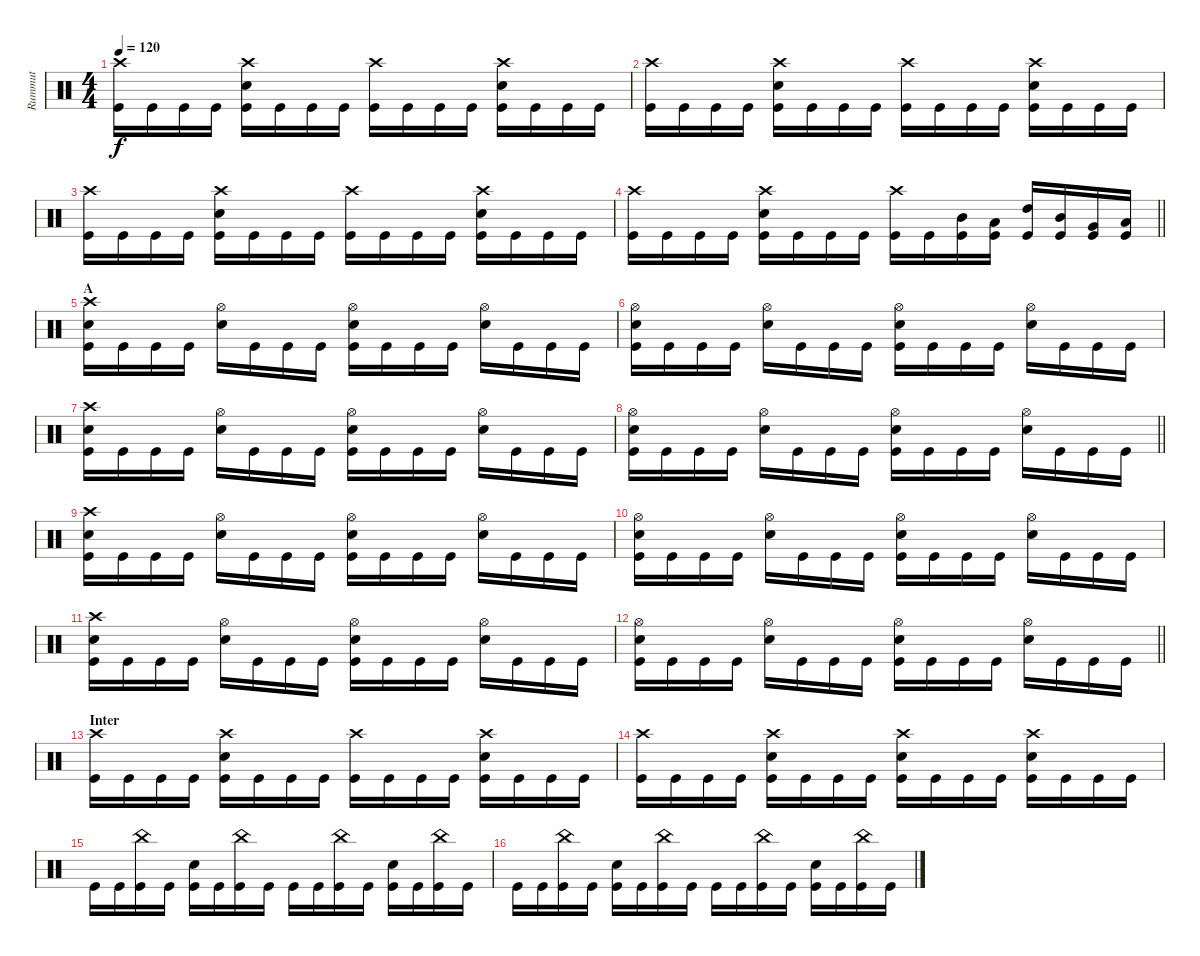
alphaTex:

\track ("Rummut" "Rummut") {instrument percussion}
\staff {score}
\articulation defaults
\ts (4 4)
\tempo 120
\clef neutral
\ks c
("Crash high (hit)" "Kick (hit)").16{dy f} "Kick (hit)".16 "Kick (hit)".16 "Kick (hit)".16 ("Crash high (hit)" "Snare (hit) 2" "Kick (hit)").16 "Kick (hit)".16 "Kick (hit)".16 "Kick (hit)".16 ("Crash high (hit)" "Kick (hit)").16 "Kick (hit)".16 "Kick (hit)".16 "Kick (hit)".16 ("Crash high (hit)" "Snare (hit) 2" "Kick (hit)").16 "Kick (hit)".16 "Kick (hit)".16 "Kick (hit)".16 |
("Crash high (hit)" "Kick (hit)").16 "Kick (hit)".16 "Kick (hit)".16 "Kick (hit)".16 ("Crash high (hit)" "Snare (hit) 2" "Kick (hit)").16 "Kick (hit)".16 "Kick (hit)".16 "Kick (hit)".16 ("Crash high (hit)" "Kick (hit)").16 "Kick (hit)".16 "Kick (hit)".16 "Kick (hit)".16 ("Crash high (hit)" "Snare (hit) 2" "Kick (hit)").16 "Kick (hit)".16 "Kick (hit)".16 "Kick (hit)".16 |
("Crash high (hit)" "Kick (hit)").16 "Kick (hit)".16 "Kick (hit)".16 "Kick (hit)".16 ("Crash high (hit)" "Snare (hit) 2" "Kick (hit)").16 "Kick (hit)".16 "Kick (hit)".16 "Kick (hit)".16 ("Crash high (hit)" "Kick (hit)").16 "Kick (hit)".16 "Kick (hit)".16 "Kick (hit)".16 ("Crash high (hit)" "Snare (hit) 2" "Kick (hit)").16 "Kick (hit)".16 "Kick (hit)".16 "Kick (hit)".16 |
\barLineRight lightlight
("Crash high (hit)" "Kick (hit)").16 "Kick (hit)".16 "Kick (hit)".16 "Kick (hit)".16 ("Crash high (hit)" "Snare (hit) 2" "Kick (hit)").16 "Kick (hit)".16 "Kick (hit)".16 "Kick (hit)".16 ("Crash high (hit)" "Kick (hit)").16 "Kick (hit)".16 ("Mid Tom (hit)" "Kick (hit)").16 ("Low Tom (hit)" "Kick (hit)").16 ("High Tom (hit)" "Kick (hit)").16 ("Mid Tom (hit)" "Kick (hit)").16 ("Very Low Tom (hit)" "Kick (hit)").16 ("Low Floor Tom (hit)" "Kick (hit)").16 |
\section ("" "A")
("Kick (hit)" "Snare (hit) 2" "Crash high (hit)").16 "Kick (hit)".16 "Kick (hit)".16 "Kick (hit)".16 ("Snare (hit) 2" "Hi-Hat (open)").16 "Kick (hit)".16 "Kick (hit)".16 "Kick (hit)".16 ("Kick (hit)" "Snare (hit) 2" "Hi-Hat (open)").16 "Kick (hit)".16 "Kick (hit)".16 "Kick (hit)".16 ("Snare (hit) 2" "Hi-Hat (open)").16 "Kick (hit)".16 "Kick (hit)".16 "Kick (hit)".16 |
("Kick (hit)" "Snare (hit) 2" "Hi-Hat (open)").16 "Kick (hit)".16 "Kick (hit)".16 "Kick (hit)".16 ("Snare (hit) 2" "Hi-Hat (open)").16 "Kick (hit)".16 "Kick (hit)".16 "Kick (hit)".16 ("Kick (hit)" "Snare (hit) 2" "Hi-Hat (open)").16 "Kick (hit)".16 "Kick (hit)".16 "Kick (hit)".16 ("Snare (hit) 2" "Hi-Hat (open)").16 "Kick (hit)".16 "Kick (hit)".16 "Kick (hit)".16 |
("Kick (hit)" "Snare (hit) 2" "Crash high (hit)").16 "Kick (hit)".16 "Kick (hit)".16 "Kick (hit)".16 ("Snare (hit) 2" "Hi-Hat (open)").16 "Kick (hit)".16 "Kick (hit)".16 "Kick (hit)".16 ("Kick (hit)" "Snare (hit) 2" "Hi-Hat (open)").16 "Kick (hit)".16 "Kick (hit)".16 "Kick (hit)".16 ("Snare (hit) 2" "Hi-Hat (open)").16 "Kick (hit)".16 "Kick (hit)".16 "Kick (hit)".16 |
\barLineRight lightlight
("Kick (hit)" "Snare (hit) 2" "Hi-Hat (open)").16 "Kick (hit)".16 "Kick (hit)".16 "Kick (hit)".16 ("Snare (hit) 2" "Hi-Hat (open)").16 "Kick (hit)".16 "Kick (hit)".16 "Kick (hit)".16 ("Kick (hit)" "Snare (hit) 2" "Hi-Hat (open)").16 "Kick (hit)".16 "Kick (hit)".16 "Kick (hit)".16 ("Snare (hit) 2" "Hi-Hat (open)").16 "Kick (hit)".16 "Kick (hit)".16 "Kick (hit)".16 |
("Kick (hit)" "Snare (hit) 2" "Crash high (hit)").16 "Kick (hit)".16 "Kick (hit)".16 "Kick (hit)".16 ("Snare (hit) 2" "Hi-Hat (open)").16 "Kick (hit)".16 "Kick (hit)".16 "Kick (hit)".16 ("Kick (hit)" "Snare (hit) 2" "Hi-Hat (open)").16 "Kick (hit)".16 "Kick (hit)".16 "Kick (hit)".16 ("Snare (hit) 2" "Hi-Hat (open)").16 "Kick (hit)".16 "Kick (hit)".16 "Kick (hit)".16 |
("Kick (hit)" "Snare (hit) 2" "Hi-Hat (open)").16 "Kick (hit)".16 "Kick (hit)".16 "Kick (hit)".16 ("Snare (hit) 2" "Hi-Hat (open)").16 "Kick (hit)".16 "Kick (hit)".16 "Kick (hit)".16 ("Kick (hit)" "Snare (hit) 2" "Hi-Hat (open)").16 "Kick (hit)".16 "Kick (hit)".16 "Kick (hit)".16 ("Snare (hit) 2" "Hi-Hat (open)").16 "Kick (hit)".16 "Kick (hit)".16 "Kick (hit)".16 |
("Kick (hit)" "Snare (hit) 2" "Crash high (hit)").16 "Kick (hit)".16 "Kick (hit)".16 "Kick (hit)".16 ("Snare (hit) 2" "Hi-Hat (open)").16 "Kick (hit)".16 "Kick (hit)".16 "Kick (hit)".16 ("Kick (hit)" "Snare (hit) 2" "Hi-Hat (open)").16 "Kick (hit)".16 "Kick (hit)".16 "Kick (hit)".16 ("Snare (hit) 2" "Hi-Hat (open)").16 "Kick (hit)".16 "Kick (hit)".16 "Kick (hit)".16 |
\barLineRight lightlight
("Kick (hit)" "Snare (hit) 2" "Hi-Hat (open)").16 "Kick (hit)".16 "Kick (hit)".16 "Kick (hit)".16 ("Snare (hit) 2" "Hi-Hat (open)").16 "Kick (hit)".16 "Kick (hit)".16 "Kick (hit)".16 ("Kick (hit)" "Snare (hit) 2" "Hi-Hat (open)").16 "Kick (hit)".16 "Kick (hit)".16 "Kick (hit)".16 ("Snare (hit) 2" "Hi-Hat (open)").16 "Kick (hit)".16 "Kick (hit)".16 "Kick (hit)".16 |
\section ("" "Inter")
("Crash high (hit)" "Kick (hit)").16 "Kick (hit)".16 "Kick (hit)".16 "Kick (hit)".16 ("Crash high (hit)" "Snare (hit) 2" "Kick (hit)").16 "Kick (hit)".16 "Kick (hit)".16 "Kick (hit)".16 ("Crash high (hit)" "Kick (hit)").16 "Kick (hit)".16 "Kick (hit)".16 "Kick (hit)".16 ("Crash high (hit)" "Snare (hit) 2" "Kick (hit)").16 "Kick (hit)".16 "Kick (hit)".16 "Kick (hit)".16 |
("Crash high (hit)" "Kick (hit)").16 "Kick (hit)".16 "Kick (hit)".16 "Kick (hit)".16 ("Crash high (hit)" "Snare (hit) 2" "Kick (hit)").16 "Kick (hit)".16 "Kick (hit)".16 "Kick (hit)".16 ("Crash high (hit)" "Snare (hit) 2" "Kick (hit)").16 "Kick (hit)".16 "Kick (hit)".16 "Kick (hit)".16 ("Crash high (hit)" "Snare (hit) 2" "Kick (hit)").16 "Kick (hit)".16 "Kick (hit)".16 "Kick (hit)".16 |
"Kick (hit)".16 "Kick (hit)".16 ("China (hit)" "Kick (hit)").16 "Kick (hit)".16 ("Snare (hit) 2" "Kick (hit)").16 "Kick (hit)".16 ("China (hit)" "Kick (hit)").16 "Kick (hit)".16 "Kick (hit)".16 "Kick (hit)".16 ("China (hit)" "Kick (hit)").16 "Kick (hit)".16 ("Snare (hit) 2" "Kick (hit)").16 "Kick (hit)".16 ("China (hit)" "Kick (hit)").16 "Kick (hit)".16 |
"Kick (hit)".16 "Kick (hit)".16 ("China (hit)" "Kick (hit)").16 "Kick (hit)".16 ("Snare (hit) 2" "Kick (hit)").16 "Kick (hit)".16 ("China (hit)" "Kick (hit)").16 "Kick (hit)".16 "Kick (hit)".16 "Kick (hit)".16 ("China (hit)" "Kick (hit)").16 "Kick (hit)".16 ("Snare (hit) 2" "Kick (hit)").16 "Kick (hit)".16 ("China (hit)" "Kick (hit)").16 "Kick (hit)".16
